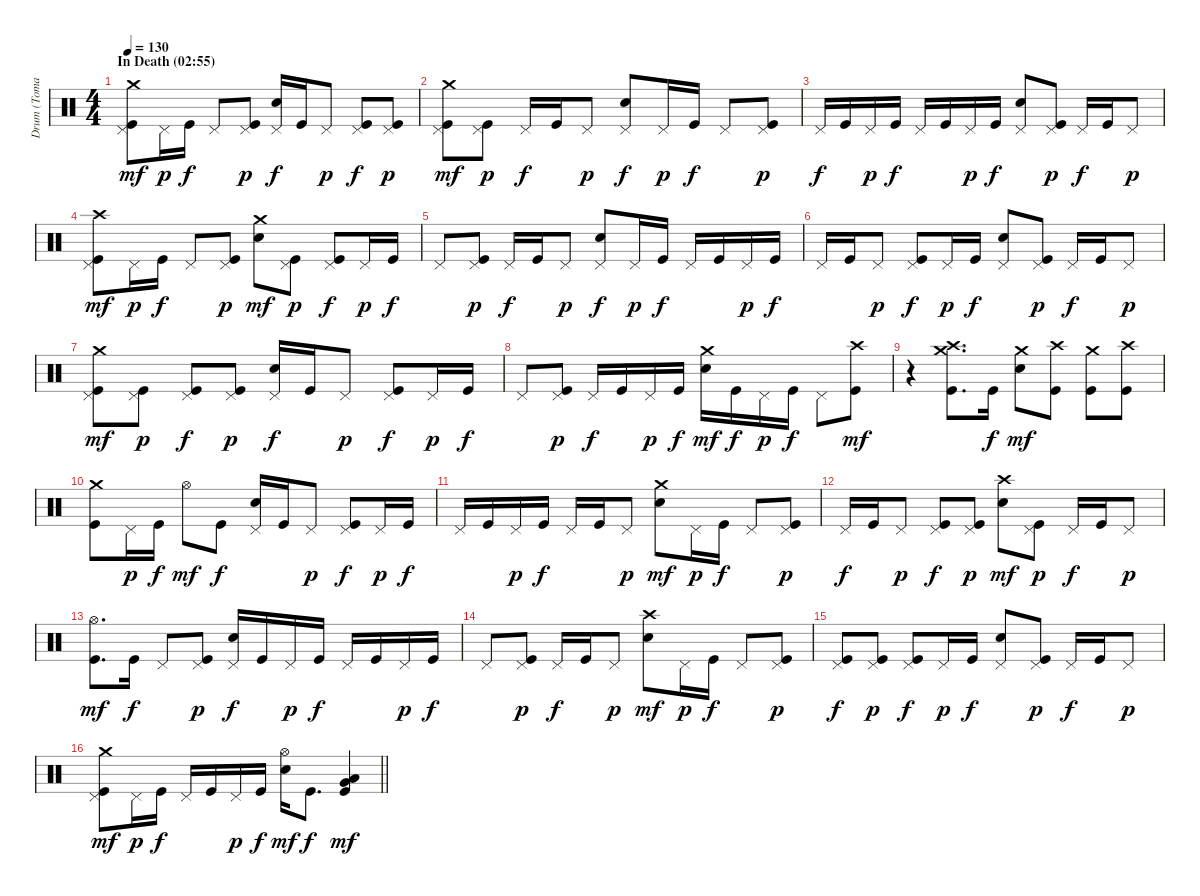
\track ("Drum (Tomas Haake)" "Drum (Toma") {instrument percussion}
\staff {score}
\articulation defaults
\ts (4 4)
\section ("" "In Death (02:55)")
\tempo 130
\clef neutral
\ks c
("Crash medium (hit)" "Pedal Hi-Hat (hit)" "Kick (hit)").8{dy mf} "Pedal Hi-Hat (hit)".16{dy p} "Kick (hit)".16{dy f} "Pedal Hi-Hat (hit)".8 ("Pedal Hi-Hat (hit)" "Kick (hit)").8{dy p} ("Pedal Hi-Hat (hit)" "Electric Snare (hit)").16{dy f} "Kick (hit)".16 "Pedal Hi-Hat (hit)".8{dy p} ("Pedal Hi-Hat (hit)" "Kick (hit)").8{dy f} ("Pedal Hi-Hat (hit)" "Kick (hit)").8{dy p} |
("Crash medium (hit)" "Pedal Hi-Hat (hit)" "Kick (hit)").8{dy mf} ("Pedal Hi-Hat (hit)" "Kick (hit)").8{dy p} "Pedal Hi-Hat (hit)".16{dy f} "Kick (hit)".16 "Pedal Hi-Hat (hit)".8{dy p} ("Pedal Hi-Hat (hit)" "Electric Snare (hit)").8{dy f} "Pedal Hi-Hat (hit)".16{dy p} "Kick (hit)".16{dy f} "Pedal Hi-Hat (hit)".8 ("Pedal Hi-Hat (hit)" "Kick (hit)").8{dy p} |
"Pedal Hi-Hat (hit)".16{dy f} "Kick (hit)".16 "Pedal Hi-Hat (hit)".16{dy p} "Kick (hit)".16{dy f} "Pedal Hi-Hat (hit)".16 "Kick (hit)".16 "Pedal Hi-Hat (hit)".16{dy p} "Kick (hit)".16{dy f} ("Pedal Hi-Hat (hit)" "Electric Snare (hit)").8 ("Pedal Hi-Hat (hit)" "Kick (hit)").8{dy p} "Pedal Hi-Hat (hit)".16{dy f} "Kick (hit)".16 "Pedal Hi-Hat (hit)".8{dy p} |
("Crash high (hit)" "Pedal Hi-Hat (hit)" "Kick (hit)").8{dy mf} "Pedal Hi-Hat (hit)".16{dy p} "Kick (hit)".16{dy f} "Pedal Hi-Hat (hit)".8 ("Pedal Hi-Hat (hit)" "Kick (hit)").8{dy p} ("Crash medium (hit)" "Electric Snare (hit)").8{dy mf} ("Pedal Hi-Hat (hit)" "Kick (hit)").8{dy p} ("Pedal Hi-Hat (hit)" "Kick (hit)").8{dy f} "Pedal Hi-Hat (hit)".16{dy p} "Kick (hit)".16{dy f} |
"Pedal Hi-Hat (hit)".8 ("Pedal Hi-Hat (hit)" "Kick (hit)").8{dy p} "Pedal Hi-Hat (hit)".16{dy f} "Kick (hit)".16 "Pedal Hi-Hat (hit)".8{dy p} ("Pedal Hi-Hat (hit)" "Electric Snare (hit)").8{dy f} "Pedal Hi-Hat (hit)".16{dy p} "Kick (hit)".16{dy f} "Pedal Hi-Hat (hit)".16 "Kick (hit)".16 "Pedal Hi-Hat (hit)".16{dy p} "Kick (hit)".16{dy f} |
"Pedal Hi-Hat (hit)".16 "Kick (hit)".16 "Pedal Hi-Hat (hit)".8{dy p} ("Pedal Hi-Hat (hit)" "Kick (hit)").8{dy f} "Pedal Hi-Hat (hit)".16{dy p} "Kick (hit)".16{dy f} ("Pedal Hi-Hat (hit)" "Electric Snare (hit)").8 ("Pedal Hi-Hat (hit)" "Kick (hit)").8{dy p} "Pedal Hi-Hat (hit)".16{dy f} "Kick (hit)".16 "Pedal Hi-Hat (hit)".8{dy p} |
("Crash medium (hit)" "Pedal Hi-Hat (hit)" "Kick (hit)").8{dy mf} ("Pedal Hi-Hat (hit)" "Kick (hit)").8{dy p} ("Pedal Hi-Hat (hit)" "Kick (hit)").8{dy f} ("Pedal Hi-Hat (hit)" "Kick (hit)").8{dy p} ("Pedal Hi-Hat (hit)" "Electric Snare (hit)").16{dy f} "Kick (hit)".16 "Pedal Hi-Hat (hit)".8{dy p} ("Pedal Hi-Hat (hit)" "Kick (hit)").8{dy f} "Pedal Hi-Hat (hit)".16{dy p} "Kick (hit)".16{dy f} |
"Pedal Hi-Hat (hit)".8 ("Pedal Hi-Hat (hit)" "Kick (hit)").8{dy p} "Pedal Hi-Hat (hit)".16{dy f} "Kick (hit)".16 "Pedal Hi-Hat (hit)".16{dy p} "Kick (hit)".16{dy f} ("Crash medium (hit)" "Electric Snare (hit)").16{dy mf} "Kick (hit)".16{dy f} "Pedal Hi-Hat (hit)".16{dy p} "Kick (hit)".16{dy f} "Pedal Hi-Hat (hit)".8 ("Crash high (hit)" "Kick (hit)").8{dy mf} |
r.4 ("Crash medium (hit)" "Crash high (hit)" "Kick (hit)").8{d} "Kick (hit)".16{dy f} ("Crash medium (hit)" "Electric Snare (hit)").8{dy mf} ("Crash high (hit)" "Kick (hit)").8 ("Crash medium (hit)" "Kick (hit)").8 ("Crash high (hit)" "Kick (hit)").8 |
("Crash medium (hit)" "Kick (hit)").8 "Pedal Hi-Hat (hit)".16{dy p} "Kick (hit)".16{dy f} "Hi-Hat (open)".8{dy mf} "Kick (hit)".8{dy f} ("Pedal Hi-Hat (hit)" "Electric Snare (hit)").16 "Kick (hit)".16 "Pedal Hi-Hat (hit)".8{dy p} ("Pedal Hi-Hat (hit)" "Kick (hit)").8{dy f} "Pedal Hi-Hat (hit)".16{dy p} "Kick (hit)".16{dy f} |
"Pedal Hi-Hat (hit)".16 "Kick (hit)".16 "Pedal Hi-Hat (hit)".16{dy p} "Kick (hit)".16{dy f} "Pedal Hi-Hat (hit)".16 "Kick (hit)".16 "Pedal Hi-Hat (hit)".8{dy p} ("Crash medium (hit)" "Electric Snare (hit)").8{dy mf} "Pedal Hi-Hat (hit)".16{dy p} "Kick (hit)".16{dy f} "Pedal Hi-Hat (hit)".8 ("Pedal Hi-Hat (hit)" "Kick (hit)").8{dy p} |
"Pedal Hi-Hat (hit)".16{dy f} "Kick (hit)".16 "Pedal Hi-Hat (hit)".8{dy p} ("Pedal Hi-Hat (hit)" "Kick (hit)").8{dy f} ("Pedal Hi-Hat (hit)" "Kick (hit)").8{dy p} ("Crash high (hit)" "Electric Snare (hit)").8{dy mf} ("Pedal Hi-Hat (hit)" "Kick (hit)").8{dy p} "Pedal Hi-Hat (hit)".16{dy f} "Kick (hit)".16 "Pedal Hi-Hat (hit)".8{dy p} |
("Hi-Hat (open)" "Kick (hit)").8{d dy mf} "Kick (hit)".16{dy f} "Pedal Hi-Hat (hit)".8 ("Pedal Hi-Hat (hit)" "Kick (hit)").8{dy p} ("Pedal Hi-Hat (hit)" "Electric Snare (hit)").16{dy f} "Kick (hit)".16 "Pedal Hi-Hat (hit)".16{dy p} "Kick (hit)".16{dy f} "Pedal Hi-Hat (hit)".16 "Kick (hit)".16 "Pedal Hi-Hat (hit)".16{dy p} "Kick (hit)".16{dy f} |
"Pedal Hi-Hat (hit)".8 ("Pedal Hi-Hat (hit)" "Kick (hit)").8{dy p} "Pedal Hi-Hat (hit)".16{dy f} "Kick (hit)".16 "Pedal Hi-Hat (hit)".8{dy p} ("Crash high (hit)" "Electric Snare (hit)").8{dy mf} "Pedal Hi-Hat (hit)".16{dy p} "Kick (hit)".16{dy f} "Pedal Hi-Hat (hit)".8 ("Pedal Hi-Hat (hit)" "Kick (hit)").8{dy p} |
("Pedal Hi-Hat (hit)" "Kick (hit)").8{dy f} ("Pedal Hi-Hat (hit)" "Kick (hit)").8{dy p} ("Pedal Hi-Hat (hit)" "Kick (hit)").8{dy f} "Pedal Hi-Hat (hit)".16{dy p} "Kick (hit)".16{dy f} ("Pedal Hi-Hat (hit)" "Electric Snare (hit)").8 ("Pedal Hi-Hat (hit)" "Kick (hit)").8{dy p} "Pedal Hi-Hat (hit)".16{dy f} "Kick (hit)".16 "Pedal Hi-Hat (hit)".8{dy p} |
\barLineRight lightlight
("Crash medium (hit)" "Pedal Hi-Hat (hit)" "Kick (hit)").8{dy mf} "Pedal Hi-Hat (hit)".16{dy p} "Kick (hit)".16{dy f} "Pedal Hi-Hat (hit)".16 "Kick (hit)".16 "Pedal Hi-Hat (hit)".16{dy p} "Kick (hit)".16{dy f} ("Hi-Hat (open)" "Electric Snare (hit)").16{dy mf} "Kick (hit)".8{d dy f} ("Very Low Tom (hit)" "Low Floor Tom (hit)" "Kick (hit)").4{dy mf}
